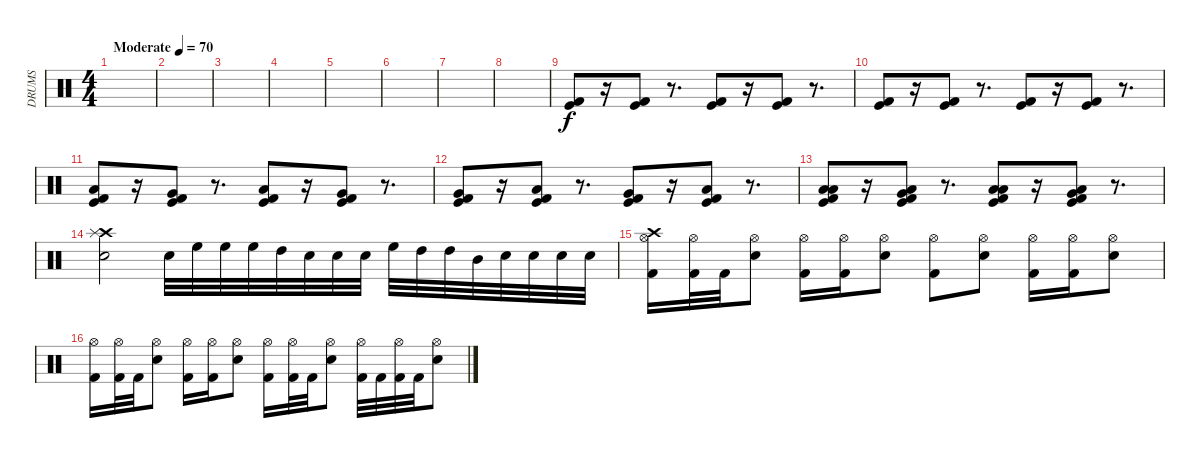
\track ("DRUMS" "DRUMS") {instrument percussion}
\staff {score}
\articulation defaults
\ts (4 4)
\tempo (70 "Moderate")
\clef neutral
\ks c
|
|
|
|
|
|
|
|
("Kick (hit)" "Kick (hit) 2").8 r.16 ("Kick (hit)" "Kick (hit) 2").8 r.8{d} ("Kick (hit)" "Kick (hit) 2").8 r.16 ("Kick (hit)" "Kick (hit) 2").8 r.8{d} |
("Kick (hit)" "Kick (hit) 2").8 r.16 ("Kick (hit)" "Kick (hit) 2").8 r.8{d} ("Kick (hit)" "Kick (hit) 2").8 r.16 ("Kick (hit)" "Kick (hit) 2").8 r.8{d} |
("Low Tom (hit)" "Kick (hit)" "Kick (hit) 2").8 r.16 ("Very Low Tom (hit)" "Kick (hit)" "Kick (hit) 2").8 r.8{d} ("Low Tom (hit)" "Kick (hit)" "Kick (hit) 2").8 r.16 ("Very Low Tom (hit)" "Kick (hit)" "Kick (hit) 2").8 r.8{d} |
("Very Low Tom (hit)" "Kick (hit)" "Kick (hit) 2").8 r.16 ("Low Floor Tom (hit)" "Kick (hit)" "Kick (hit) 2").8 r.8{d} ("Very Low Tom (hit)" "Kick (hit)" "Kick (hit) 2").8 r.16 ("Low Floor Tom (hit)" "Kick (hit)" "Kick (hit) 2").8 r.8{d} |
("Low Tom (hit)" "Low Floor Tom (hit)" "Kick (hit)" "Kick (hit) 2").8 r.16 ("Very Low Tom (hit)" "Low Floor Tom (hit)" "Kick (hit)" "Kick (hit) 2").8 r.8{d} ("Low Tom (hit)" "Low Floor Tom (hit)" "Kick (hit)" "Kick (hit) 2").8 r.16 ("Very Low Tom (hit)" "Low Floor Tom (hit)" "Kick (hit)" "Kick (hit) 2").8 r.8{d} |
("Crash high (hit)" "Snare (hit) 2" "Splash (hit)").2 "Snare (hit) 2".32{dy f} "High Floor Tom (hit)".32 "High Floor Tom (hit)".32 "High Floor Tom (hit)".32 "High Tom (hit)".32 "Snare (hit) 2".32 "Snare (hit) 2".32 "Snare (hit) 2".32 "High Floor Tom (hit)".32 "High Tom (hit)".32 "High Tom (hit)".32 "Mid Tom (hit)".32 "Snare (hit) 2".32 "Snare (hit) 2".32 "Snare (hit) 2".32 "Snare (hit) 2".32 |
("Hi-Hat (open)" "Crash high (hit)" "Kick (hit) 2").16 ("Hi-Hat (open)" "Kick (hit) 2").32 "Kick (hit) 2".32 ("Hi-Hat (open)" "Snare (hit) 2").8 ("Hi-Hat (open)" "Kick (hit) 2").16 ("Hi-Hat (open)" "Kick (hit) 2").16 ("Hi-Hat (open)" "Snare (hit) 2").8 ("Hi-Hat (open)" "Kick (hit) 2").8 ("Hi-Hat (open)" "Snare (hit) 2").8 ("Hi-Hat (open)" "Kick (hit) 2").16 ("Hi-Hat (open)" "Kick (hit) 2").16 ("Hi-Hat (open)" "Snare (hit) 2").8 |
("Hi-Hat (open)" "Kick (hit) 2").16 ("Hi-Hat (open)" "Kick (hit) 2").32 "Kick (hit) 2".32 ("Hi-Hat (open)" "Snare (hit) 2").8 ("Hi-Hat (open)" "Kick (hit) 2").16 ("Hi-Hat (open)" "Kick (hit) 2").16 ("Hi-Hat (open)" "Snare (hit) 2").8 ("Hi-Hat (open)" "Kick (hit) 2").16 ("Hi-Hat (open)" "Kick (hit) 2").32 "Kick (hit) 2".32 ("Hi-Hat (open)" "Snare (hit) 2").8 ("Hi-Hat (open)" "Kick (hit) 2").32 "Kick (hit) 2".32 ("Hi-Hat (open)" "Kick (hit) 2").32 "Kick (hit) 2".32 ("Hi-Hat (open)" "Snare (hit) 2").8
